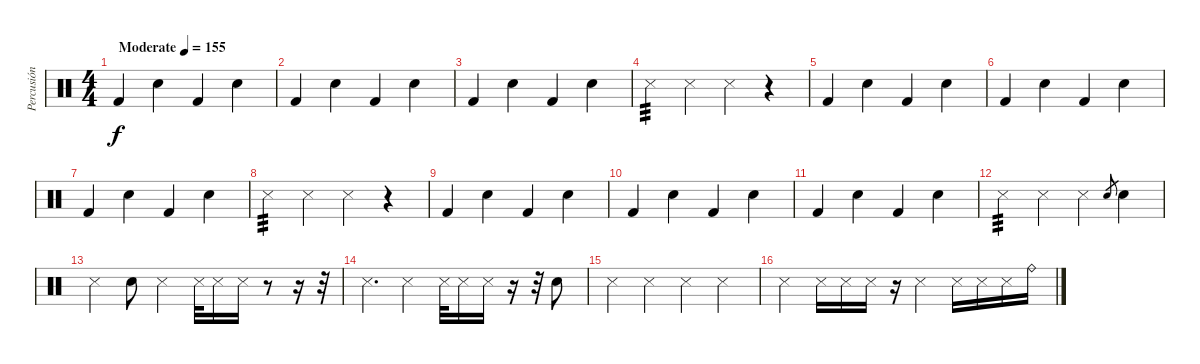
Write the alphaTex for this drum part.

\track ("Percusión" "Percusión") {instrument percussion}
\staff {score}
\articulation defaults
\ts (4 4)
\tempo (155 "Moderate")
\clef neutral
\ks c "Kick (hit) 2".4{dy f} "Snare (hit) 2".4 "Kick (hit) 2".4 "Snare (hit) 2".4
|
"Kick (hit) 2".4 "Snare (hit) 2".4 "Kick (hit) 2".4 "Snare (hit) 2".4 |
"Kick (hit) 2".4 "Snare (hit) 2".4 "Kick (hit) 2".4 "Snare (hit) 2".4 |
"Snare (side stick) 3".4{tp 3} "Snare (side stick) 3".4 "Snare (side stick) 3".4 r.4 |
"Kick (hit) 2".4 "Snare (hit) 2".4 "Kick (hit) 2".4 "Snare (hit) 2".4 |
"Kick (hit) 2".4 "Snare (hit) 2".4 "Kick (hit) 2".4 "Snare (hit) 2".4 |
"Kick (hit) 2".4 "Snare (hit) 2".4 "Kick (hit) 2".4 "Snare (hit) 2".4 |
"Snare (side stick) 3".4{tp 3} "Snare (side stick) 3".4 "Snare (side stick) 3".4 r.4 |
"Kick (hit) 2".4 "Snare (hit) 2".4 "Kick (hit) 2".4 "Snare (hit) 2".4 |
"Kick (hit) 2".4 "Snare (hit) 2".4 "Kick (hit) 2".4 "Snare (hit) 2".4 |
"Kick (hit) 2".4 "Snare (hit) 2".4 "Kick (hit) 2".4 "Snare (hit) 2".4 |
"Snare (side stick) 3".4{tp 3} "Snare (side stick) 3".4 "Snare (side stick) 3".4 "Snare (hit) 2".8{gr} "Snare (hit) 2".4 |
"Snare (side stick) 3".4 "Snare (hit) 2".8 "Snare (side stick) 3".4 "Snare (side stick) 3".32 "Snare (side stick) 3".16 "Snare (side stick) 3".16 r.8 r.16 r.32 |
"Snare (side stick) 3".4{d} "Snare (side stick) 3".4 "Snare (side stick) 3".32 "Snare (side stick) 3".16 "Snare (side stick) 3".16 r.16 r.32 "Snare (hit) 2".8 |
"Snare (side stick) 3".4 "Snare (side stick) 3".4 "Snare (side stick) 3".4 "Snare (side stick) 3".4 |
"Snare (side stick) 3".4 "Snare (side stick) 3".16 "Snare (side stick) 3".16 "Snare (side stick) 3".16 r.16 "Snare (side stick) 3".4 "Snare (side stick) 3".16 "Snare (side stick) 3".16 "Snare (side stick) 3".16 "Ride (bell)".16
